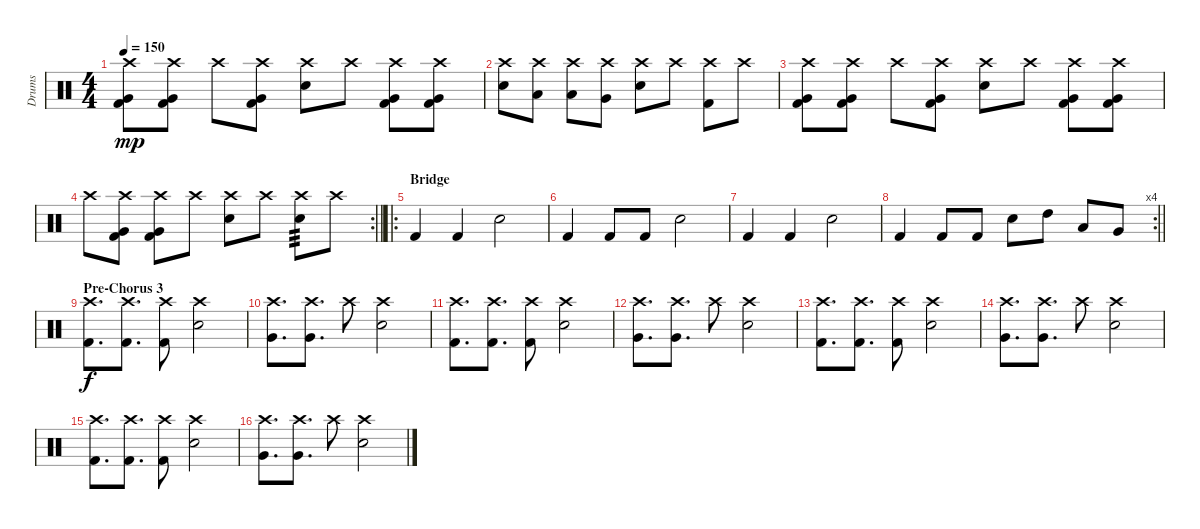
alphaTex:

\track ("Drums" "Drums") {instrument percussion}
\staff {score}
\articulation defaults
\ts (4 4)
\tempo 150
\clef neutral
\ks c
("Crash high (hit)" "Very Low Tom (hit)" "Kick (hit) 2").8{dy mp} ("Crash high (hit)" "Very Low Tom (hit)" "Kick (hit) 2").8 "Crash high (hit)".8 ("Crash high (hit)" "Very Low Tom (hit)" "Kick (hit) 2").8 ("Crash high (hit)" "Electric Snare (hit)").8 "Crash high (hit)".8 ("Crash high (hit)" "Very Low Tom (hit)" "Kick (hit) 2").8 ("Crash high (hit)" "Very Low Tom (hit)" "Kick (hit) 2").8 |
("Crash high (hit)" "Electric Snare (hit)").8 ("Crash high (hit)" "Low Tom (hit)").8 ("Crash high (hit)" "Low Tom (hit)").8 ("Crash high (hit)" "Very Low Tom (hit)").8 ("Crash high (hit)" "Electric Snare (hit)").8 "Crash high (hit)".8 ("Crash high (hit)" "Kick (hit) 2").8 "Crash high (hit)".8 |
("Crash high (hit)" "Very Low Tom (hit)" "Kick (hit) 2").8 ("Crash high (hit)" "Very Low Tom (hit)" "Kick (hit) 2").8 "Crash high (hit)".8 ("Crash high (hit)" "Very Low Tom (hit)" "Kick (hit) 2").8 ("Crash high (hit)" "Electric Snare (hit)").8 "Crash high (hit)".8 ("Crash high (hit)" "Very Low Tom (hit)" "Kick (hit) 2").8 ("Crash high (hit)" "Very Low Tom (hit)" "Kick (hit) 2").8 |
\rc 2
\barLineRight lightlight "Crash high (hit)".8
("Crash high (hit)" "Very Low Tom (hit)" "Kick (hit) 2").8 ("Crash high (hit)" "Very Low Tom (hit)" "Kick (hit) 2").8 "Crash high (hit)".8 ("Crash high (hit)" "Electric Snare (hit)").8 "Crash high (hit)".8 ("Crash high (hit)" "Electric Snare (hit)").8{tp 3} "Crash high (hit)".8 |
\ro
\section ("" "Bridge")
"Kick (hit) 2".4 "Kick (hit) 2".4 "Electric Snare (hit)".2 |
"Kick (hit) 2".4 "Kick (hit) 2".8 "Kick (hit) 2".8 "Electric Snare (hit)".2 |
"Kick (hit) 2".4 "Kick (hit) 2".4 "Electric Snare (hit)".2 |
\rc 4
\barLineRight lightlight "Kick (hit) 2".4 "Kick (hit) 2".8 "Kick (hit) 2".8 "Electric Snare (hit)".8 "High Tom (hit)".8 "Low Tom (hit)".8 "Very Low Tom (hit)".8
|
\section ("" "Pre-Chorus 3")
("Crash high (hit)" "Kick (hit) 2").8{d dy f} ("Crash high (hit)" "Kick (hit) 2").8{d} ("Crash high (hit)" "Kick (hit) 2").8 ("Crash high (hit)" "Electric Snare (hit)").2 |
("Crash high (hit)" "Very Low Tom (hit)").8{d} ("Crash high (hit)" "Very Low Tom (hit)").8{d} "Crash high (hit)".8 ("Crash high (hit)" "Electric Snare (hit)").2 |
("Crash high (hit)" "Kick (hit) 2").8{d} ("Crash high (hit)" "Kick (hit) 2").8{d} ("Crash high (hit)" "Kick (hit) 2").8 ("Crash high (hit)" "Electric Snare (hit)").2 |
("Crash high (hit)" "Very Low Tom (hit)").8{d} ("Crash high (hit)" "Very Low Tom (hit)").8{d} "Crash high (hit)".8 ("Crash high (hit)" "Electric Snare (hit)").2 |
("Crash high (hit)" "Kick (hit) 2").8{d} ("Crash high (hit)" "Kick (hit) 2").8{d} ("Crash high (hit)" "Kick (hit) 2").8 ("Crash high (hit)" "Electric Snare (hit)").2 |
("Crash high (hit)" "Very Low Tom (hit)").8{d} ("Crash high (hit)" "Very Low Tom (hit)").8{d} "Crash high (hit)".8 ("Crash high (hit)" "Electric Snare (hit)").2 |
("Crash high (hit)" "Kick (hit) 2").8{d} ("Crash high (hit)" "Kick (hit) 2").8{d} ("Crash high (hit)" "Kick (hit) 2").8 ("Crash high (hit)" "Electric Snare (hit)").2 |
("Crash high (hit)" "Very Low Tom (hit)").8{d} ("Crash high (hit)" "Very Low Tom (hit)").8{d} "Crash high (hit)".8 ("Crash high (hit)" "Electric Snare (hit)").2
